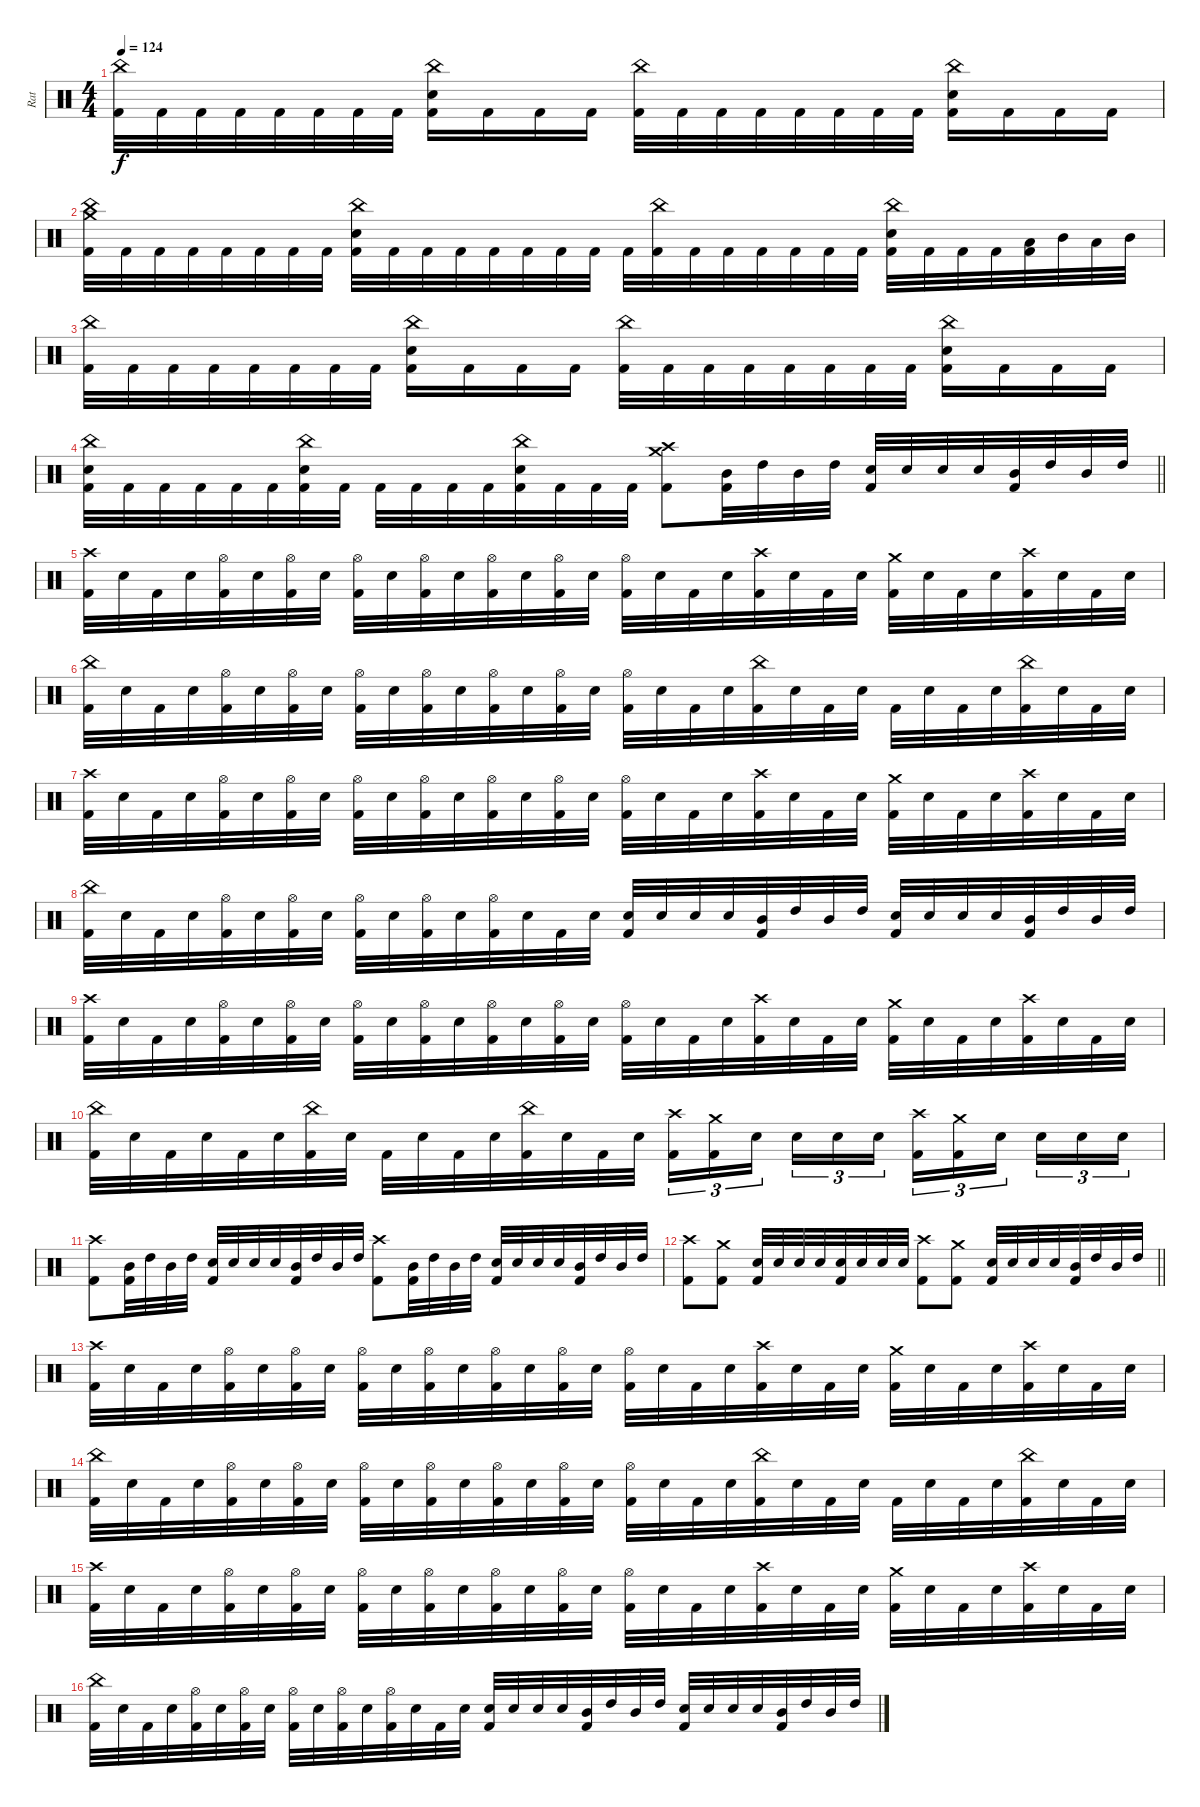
\track ("Rat" "Rat") {instrument percussion}
\staff {score}
\articulation defaults
\ts (4 4)
\tempo 124
\clef neutral
\ks c
("China (hit)" "Kick (hit) 2").32{dy f} "Kick (hit) 2".32 "Kick (hit) 2".32 "Kick (hit) 2".32 "Kick (hit) 2".32 "Kick (hit) 2".32 "Kick (hit) 2".32 "Kick (hit) 2".32 ("China (hit)" "Electric Snare (hit)" "Kick (hit) 2").16 "Kick (hit) 2".16 "Kick (hit) 2".16 "Kick (hit) 2".16 ("China (hit)" "Kick (hit) 2").32 "Kick (hit) 2".32 "Kick (hit) 2".32 "Kick (hit) 2".32 "Kick (hit) 2".32 "Kick (hit) 2".32 "Kick (hit) 2".32 "Kick (hit) 2".32 ("China (hit)" "Electric Snare (hit)" "Kick (hit) 2").16 "Kick (hit) 2".16 "Kick (hit) 2".16 "Kick (hit) 2".16 |
("China (hit)" "Crash medium (hit)" "Kick (hit) 2").32 "Kick (hit) 2".32 "Kick (hit) 2".32 "Kick (hit) 2".32 "Kick (hit) 2".32 "Kick (hit) 2".32 "Kick (hit) 2".32 "Kick (hit) 2".32 ("China (hit)" "Electric Snare (hit)" "Kick (hit) 2").32 "Kick (hit) 2".32 "Kick (hit) 2".32 "Kick (hit) 2".32 "Kick (hit) 2".32 "Kick (hit) 2".32 "Kick (hit) 2".32 "Kick (hit) 2".32 "Kick (hit) 2".32 ("China (hit)" "Kick (hit) 2").32 "Kick (hit) 2".32 "Kick (hit) 2".32 "Kick (hit) 2".32 "Kick (hit) 2".32 "Kick (hit) 2".32 "Kick (hit) 2".32 ("China (hit)" "Electric Snare (hit)" "Kick (hit) 2").32 "Kick (hit) 2".32 "Kick (hit) 2".32 "Kick (hit) 2".32 ("Low Tom (hit)" "Kick (hit) 2").32 "Mid Tom (hit)".32 "Low Tom (hit)".32 "Mid Tom (hit)".32 |
("China (hit)" "Kick (hit) 2").32 "Kick (hit) 2".32 "Kick (hit) 2".32 "Kick (hit) 2".32 "Kick (hit) 2".32 "Kick (hit) 2".32 "Kick (hit) 2".32 "Kick (hit) 2".32 ("China (hit)" "Electric Snare (hit)" "Kick (hit) 2").16 "Kick (hit) 2".16 "Kick (hit) 2".16 "Kick (hit) 2".16 ("China (hit)" "Kick (hit) 2").32 "Kick (hit) 2".32 "Kick (hit) 2".32 "Kick (hit) 2".32 "Kick (hit) 2".32 "Kick (hit) 2".32 "Kick (hit) 2".32 "Kick (hit) 2".32 ("China (hit)" "Electric Snare (hit)" "Kick (hit) 2").16 "Kick (hit) 2".16 "Kick (hit) 2".16 "Kick (hit) 2".16 |
\barLineRight lightlight
("China (hit)" "Electric Snare (hit)" "Kick (hit) 2").32 "Kick (hit) 2".32 "Kick (hit) 2".32 "Kick (hit) 2".32 "Kick (hit) 2".32 "Kick (hit) 2".32 ("China (hit)" "Electric Snare (hit)" "Kick (hit) 2").32 "Kick (hit) 2".32 "Kick (hit) 2".32 "Kick (hit) 2".32 "Kick (hit) 2".32 "Kick (hit) 2".32 ("China (hit)" "Electric Snare (hit)" "Kick (hit) 2").32 "Kick (hit) 2".32 "Kick (hit) 2".32 "Kick (hit) 2".32 ("Crash high (hit)" "Crash medium (hit)" "Kick (hit) 2").8 ("Mid Tom (hit)" "Kick (hit) 2").32 "High Tom (hit)".32 "Mid Tom (hit)".32 "High Tom (hit)".32 ("Electric Snare (hit)" "Kick (hit) 2").32 "Electric Snare (hit)".32 "Electric Snare (hit)".32 "Electric Snare (hit)".32 ("Mid Tom (hit)" "Kick (hit) 2").32 "High Tom (hit)".32 "Mid Tom (hit)".32 "High Tom (hit)".32 |
("Crash high (hit)" "Kick (hit) 2").32 "Electric Snare (hit)".32 "Kick (hit) 2".32 "Electric Snare (hit)".32 ("Hi-Hat (open)" "Kick (hit) 2").32 "Electric Snare (hit)".32 ("Hi-Hat (open)" "Kick (hit) 2").32 "Electric Snare (hit)".32 ("Hi-Hat (open)" "Kick (hit) 2").32 "Electric Snare (hit)".32 ("Hi-Hat (open)" "Kick (hit) 2").32 "Electric Snare (hit)".32 ("Hi-Hat (open)" "Kick (hit) 2").32 "Electric Snare (hit)".32 ("Hi-Hat (open)" "Kick (hit) 2").32 "Electric Snare (hit)".32 ("Hi-Hat (open)" "Kick (hit) 2").32 "Electric Snare (hit)".32 "Kick (hit) 2".32 "Electric Snare (hit)".32 ("Crash high (hit)" "Kick (hit) 2").32 "Electric Snare (hit)".32 "Kick (hit) 2".32 "Electric Snare (hit)".32 ("Crash medium (hit)" "Kick (hit) 2").32 "Electric Snare (hit)".32 "Kick (hit) 2".32 "Electric Snare (hit)".32 ("Crash high (hit)" "Kick (hit) 2").32 "Electric Snare (hit)".32 "Kick (hit) 2".32 "Electric Snare (hit)".32 |
("China (hit)" "Kick (hit) 2").32 "Electric Snare (hit)".32 "Kick (hit) 2".32 "Electric Snare (hit)".32 ("Hi-Hat (open)" "Kick (hit) 2").32 "Electric Snare (hit)".32 ("Hi-Hat (open)" "Kick (hit) 2").32 "Electric Snare (hit)".32 ("Hi-Hat (open)" "Kick (hit) 2").32 "Electric Snare (hit)".32 ("Hi-Hat (open)" "Kick (hit) 2").32 "Electric Snare (hit)".32 ("Hi-Hat (open)" "Kick (hit) 2").32 "Electric Snare (hit)".32 ("Hi-Hat (open)" "Kick (hit) 2").32 "Electric Snare (hit)".32 ("Hi-Hat (open)" "Kick (hit) 2").32 "Electric Snare (hit)".32 "Kick (hit) 2".32 "Electric Snare (hit)".32 ("China (hit)" "Kick (hit) 2").32 "Electric Snare (hit)".32 "Kick (hit) 2".32 "Electric Snare (hit)".32 "Kick (hit) 2".32 "Electric Snare (hit)".32 "Kick (hit) 2".32 "Electric Snare (hit)".32 ("China (hit)" "Kick (hit) 2").32 "Electric Snare (hit)".32 "Kick (hit) 2".32 "Electric Snare (hit)".32 |
("Crash high (hit)" "Kick (hit) 2").32 "Electric Snare (hit)".32 "Kick (hit) 2".32 "Electric Snare (hit)".32 ("Hi-Hat (open)" "Kick (hit) 2").32 "Electric Snare (hit)".32 ("Hi-Hat (open)" "Kick (hit) 2").32 "Electric Snare (hit)".32 ("Hi-Hat (open)" "Kick (hit) 2").32 "Electric Snare (hit)".32 ("Hi-Hat (open)" "Kick (hit) 2").32 "Electric Snare (hit)".32 ("Hi-Hat (open)" "Kick (hit) 2").32 "Electric Snare (hit)".32 ("Hi-Hat (open)" "Kick (hit) 2").32 "Electric Snare (hit)".32 ("Hi-Hat (open)" "Kick (hit) 2").32 "Electric Snare (hit)".32 "Kick (hit) 2".32 "Electric Snare (hit)".32 ("Crash high (hit)" "Kick (hit) 2").32 "Electric Snare (hit)".32 "Kick (hit) 2".32 "Electric Snare (hit)".32 ("Crash medium (hit)" "Kick (hit) 2").32 "Electric Snare (hit)".32 "Kick (hit) 2".32 "Electric Snare (hit)".32 ("Crash high (hit)" "Kick (hit) 2").32 "Electric Snare (hit)".32 "Kick (hit) 2".32 "Electric Snare (hit)".32 |
("China (hit)" "Kick (hit) 2").32 "Electric Snare (hit)".32 "Kick (hit) 2".32 "Electric Snare (hit)".32 ("Hi-Hat (open)" "Kick (hit) 2").32 "Electric Snare (hit)".32 ("Hi-Hat (open)" "Kick (hit) 2").32 "Electric Snare (hit)".32 ("Hi-Hat (open)" "Kick (hit) 2").32 "Electric Snare (hit)".32 ("Hi-Hat (open)" "Kick (hit) 2").32 "Electric Snare (hit)".32 ("Hi-Hat (open)" "Kick (hit) 2").32 "Electric Snare (hit)".32 "Kick (hit) 2".32 "Electric Snare (hit)".32 ("Electric Snare (hit)" "Kick (hit) 2").32 "Electric Snare (hit)".32 "Electric Snare (hit)".32 "Electric Snare (hit)".32 ("Mid Tom (hit)" "Kick (hit) 2").32 "High Tom (hit)".32 "Mid Tom (hit)".32 "High Tom (hit)".32 ("Electric Snare (hit)" "Kick (hit) 2").32 "Electric Snare (hit)".32 "Electric Snare (hit)".32 "Electric Snare (hit)".32 ("Mid Tom (hit)" "Kick (hit) 2").32 "High Tom (hit)".32 "Mid Tom (hit)".32 "High Tom (hit)".32 |
("Crash high (hit)" "Kick (hit) 2").32 "Electric Snare (hit)".32 "Kick (hit) 2".32 "Electric Snare (hit)".32 ("Hi-Hat (open)" "Kick (hit) 2").32 "Electric Snare (hit)".32 ("Hi-Hat (open)" "Kick (hit) 2").32 "Electric Snare (hit)".32 ("Hi-Hat (open)" "Kick (hit) 2").32 "Electric Snare (hit)".32 ("Hi-Hat (open)" "Kick (hit) 2").32 "Electric Snare (hit)".32 ("Hi-Hat (open)" "Kick (hit) 2").32 "Electric Snare (hit)".32 ("Hi-Hat (open)" "Kick (hit) 2").32 "Electric Snare (hit)".32 ("Hi-Hat (open)" "Kick (hit) 2").32 "Electric Snare (hit)".32 "Kick (hit) 2".32 "Electric Snare (hit)".32 ("Crash high (hit)" "Kick (hit) 2").32 "Electric Snare (hit)".32 "Kick (hit) 2".32 "Electric Snare (hit)".32 ("Crash medium (hit)" "Kick (hit) 2").32 "Electric Snare (hit)".32 "Kick (hit) 2".32 "Electric Snare (hit)".32 ("Crash high (hit)" "Kick (hit) 2").32 "Electric Snare (hit)".32 "Kick (hit) 2".32 "Electric Snare (hit)".32 |
("China (hit)" "Kick (hit) 2").32 "Electric Snare (hit)".32 "Kick (hit) 2".32 "Electric Snare (hit)".32 "Kick (hit) 2".32 "Electric Snare (hit)".32 ("China (hit)" "Kick (hit) 2").32 "Electric Snare (hit)".32 "Kick (hit) 2".32 "Electric Snare (hit)".32 "Kick (hit) 2".32 "Electric Snare (hit)".32 ("China (hit)" "Kick (hit) 2").32 "Electric Snare (hit)".32 "Kick (hit) 2".32 "Electric Snare (hit)".32 ("Crash high (hit)" "Kick (hit) 2").16{tu (3 2)} ("Crash medium (hit)" "Kick (hit) 2").16{tu (3 2)} "Electric Snare (hit)".16{tu (3 2) beam splitsecondary} "Electric Snare (hit)".16{tu (3 2)} "Electric Snare (hit)".16{tu (3 2)} "Electric Snare (hit)".16{tu (3 2)} ("Crash high (hit)" "Kick (hit) 2").16{tu (3 2)} ("Crash medium (hit)" "Kick (hit) 2").16{tu (3 2)} "Electric Snare (hit)".16{tu (3 2) beam splitsecondary} "Electric Snare (hit)".16{tu (3 2)} "Electric Snare (hit)".16{tu (3 2)} "Electric Snare (hit)".16{tu (3 2)} |
("Crash high (hit)" "Kick (hit) 2").8 ("Mid Tom (hit)" "Kick (hit) 2").32 "High Tom (hit)".32 "Mid Tom (hit)".32 "High Tom (hit)".32 ("Electric Snare (hit)" "Kick (hit) 2").32 "Electric Snare (hit)".32 "Electric Snare (hit)".32 "Electric Snare (hit)".32 ("Mid Tom (hit)" "Kick (hit) 2").32 "High Tom (hit)".32 "Mid Tom (hit)".32 "High Tom (hit)".32 ("Crash high (hit)" "Kick (hit) 2").8 ("Mid Tom (hit)" "Kick (hit) 2").32 "High Tom (hit)".32 "Mid Tom (hit)".32 "High Tom (hit)".32 ("Electric Snare (hit)" "Kick (hit) 2").32 "Electric Snare (hit)".32 "Electric Snare (hit)".32 "Electric Snare (hit)".32 ("Mid Tom (hit)" "Kick (hit) 2").32 "High Tom (hit)".32 "Mid Tom (hit)".32 "High Tom (hit)".32 |
\barLineRight lightlight
("Crash high (hit)" "Kick (hit) 2").8 ("Crash medium (hit)" "Kick (hit) 2").8 ("Electric Snare (hit)" "Kick (hit) 2").32 "Electric Snare (hit)".32 "Electric Snare (hit)".32 "Electric Snare (hit)".32 ("Electric Snare (hit)" "Kick (hit) 2").32 "Electric Snare (hit)".32 "Electric Snare (hit)".32 "Electric Snare (hit)".32 ("Crash high (hit)" "Kick (hit) 2").8 ("Crash medium (hit)" "Kick (hit) 2").8 ("Electric Snare (hit)" "Kick (hit) 2").32 "Electric Snare (hit)".32 "Electric Snare (hit)".32 "Electric Snare (hit)".32 ("Mid Tom (hit)" "Kick (hit) 2").32 "High Tom (hit)".32 "Mid Tom (hit)".32 "High Tom (hit)".32 |
("Crash high (hit)" "Kick (hit) 2").32 "Electric Snare (hit)".32 "Kick (hit) 2".32 "Electric Snare (hit)".32 ("Hi-Hat (open)" "Kick (hit) 2").32 "Electric Snare (hit)".32 ("Hi-Hat (open)" "Kick (hit) 2").32 "Electric Snare (hit)".32 ("Hi-Hat (open)" "Kick (hit) 2").32 "Electric Snare (hit)".32 ("Hi-Hat (open)" "Kick (hit) 2").32 "Electric Snare (hit)".32 ("Hi-Hat (open)" "Kick (hit) 2").32 "Electric Snare (hit)".32 ("Hi-Hat (open)" "Kick (hit) 2").32 "Electric Snare (hit)".32 ("Hi-Hat (open)" "Kick (hit) 2").32 "Electric Snare (hit)".32 "Kick (hit) 2".32 "Electric Snare (hit)".32 ("Crash high (hit)" "Kick (hit) 2").32 "Electric Snare (hit)".32 "Kick (hit) 2".32 "Electric Snare (hit)".32 ("Crash medium (hit)" "Kick (hit) 2").32 "Electric Snare (hit)".32 "Kick (hit) 2".32 "Electric Snare (hit)".32 ("Crash high (hit)" "Kick (hit) 2").32 "Electric Snare (hit)".32 "Kick (hit) 2".32 "Electric Snare (hit)".32 |
("China (hit)" "Kick (hit) 2").32 "Electric Snare (hit)".32 "Kick (hit) 2".32 "Electric Snare (hit)".32 ("Hi-Hat (open)" "Kick (hit) 2").32 "Electric Snare (hit)".32 ("Hi-Hat (open)" "Kick (hit) 2").32 "Electric Snare (hit)".32 ("Hi-Hat (open)" "Kick (hit) 2").32 "Electric Snare (hit)".32 ("Hi-Hat (open)" "Kick (hit) 2").32 "Electric Snare (hit)".32 ("Hi-Hat (open)" "Kick (hit) 2").32 "Electric Snare (hit)".32 ("Hi-Hat (open)" "Kick (hit) 2").32 "Electric Snare (hit)".32 ("Hi-Hat (open)" "Kick (hit) 2").32 "Electric Snare (hit)".32 "Kick (hit) 2".32 "Electric Snare (hit)".32 ("China (hit)" "Kick (hit) 2").32 "Electric Snare (hit)".32 "Kick (hit) 2".32 "Electric Snare (hit)".32 "Kick (hit) 2".32 "Electric Snare (hit)".32 "Kick (hit) 2".32 "Electric Snare (hit)".32 ("China (hit)" "Kick (hit) 2").32 "Electric Snare (hit)".32 "Kick (hit) 2".32 "Electric Snare (hit)".32 |
("Crash high (hit)" "Kick (hit) 2").32 "Electric Snare (hit)".32 "Kick (hit) 2".32 "Electric Snare (hit)".32 ("Hi-Hat (open)" "Kick (hit) 2").32 "Electric Snare (hit)".32 ("Hi-Hat (open)" "Kick (hit) 2").32 "Electric Snare (hit)".32 ("Hi-Hat (open)" "Kick (hit) 2").32 "Electric Snare (hit)".32 ("Hi-Hat (open)" "Kick (hit) 2").32 "Electric Snare (hit)".32 ("Hi-Hat (open)" "Kick (hit) 2").32 "Electric Snare (hit)".32 ("Hi-Hat (open)" "Kick (hit) 2").32 "Electric Snare (hit)".32 ("Hi-Hat (open)" "Kick (hit) 2").32 "Electric Snare (hit)".32 "Kick (hit) 2".32 "Electric Snare (hit)".32 ("Crash high (hit)" "Kick (hit) 2").32 "Electric Snare (hit)".32 "Kick (hit) 2".32 "Electric Snare (hit)".32 ("Crash medium (hit)" "Kick (hit) 2").32 "Electric Snare (hit)".32 "Kick (hit) 2".32 "Electric Snare (hit)".32 ("Crash high (hit)" "Kick (hit) 2").32 "Electric Snare (hit)".32 "Kick (hit) 2".32 "Electric Snare (hit)".32 |
("China (hit)" "Kick (hit) 2").32 "Electric Snare (hit)".32 "Kick (hit) 2".32 "Electric Snare (hit)".32 ("Hi-Hat (open)" "Kick (hit) 2").32 "Electric Snare (hit)".32 ("Hi-Hat (open)" "Kick (hit) 2").32 "Electric Snare (hit)".32 ("Hi-Hat (open)" "Kick (hit) 2").32 "Electric Snare (hit)".32 ("Hi-Hat (open)" "Kick (hit) 2").32 "Electric Snare (hit)".32 ("Hi-Hat (open)" "Kick (hit) 2").32 "Electric Snare (hit)".32 "Kick (hit) 2".32 "Electric Snare (hit)".32 ("Electric Snare (hit)" "Kick (hit) 2").32 "Electric Snare (hit)".32 "Electric Snare (hit)".32 "Electric Snare (hit)".32 ("Mid Tom (hit)" "Kick (hit) 2").32 "High Tom (hit)".32 "Mid Tom (hit)".32 "High Tom (hit)".32 ("Electric Snare (hit)" "Kick (hit) 2").32 "Electric Snare (hit)".32 "Electric Snare (hit)".32 "Electric Snare (hit)".32 ("Mid Tom (hit)" "Kick (hit) 2").32 "High Tom (hit)".32 "Mid Tom (hit)".32 "High Tom (hit)".32
